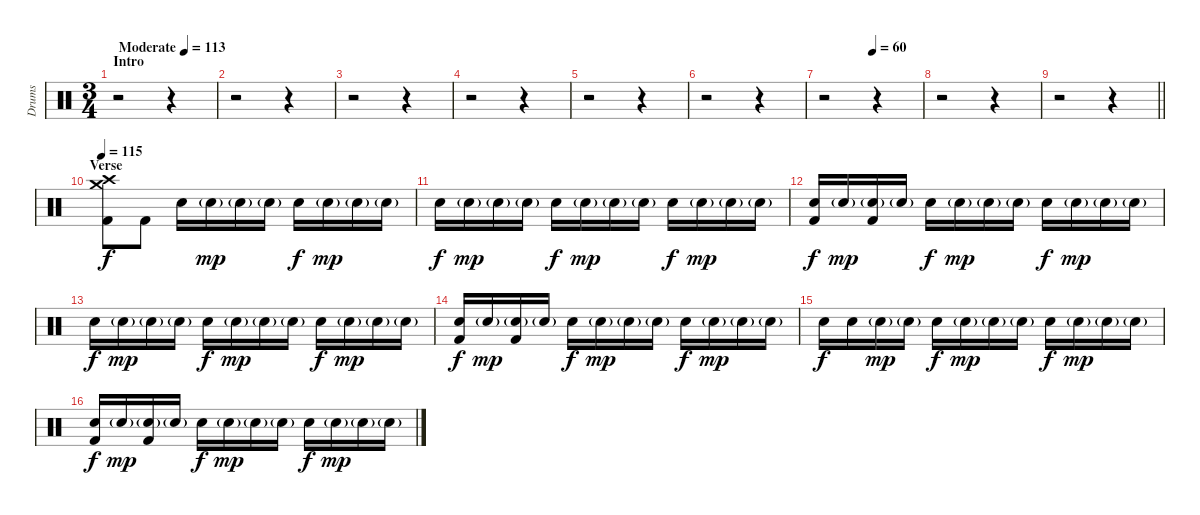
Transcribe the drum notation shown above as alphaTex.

\track ("Drums " "Drums ") {instrument percussion}
\staff {score}
\articulation defaults
\ts (3 4)
\section ("" "Intro")
\tempo (113 "Moderate")
\clef neutral
\ks c
r.2{dy f} r.4 |
r.2 r.4 |
r.2 r.4 |
r.2 r.4 |
r.2 r.4 |
r.2 r.4 |
\tempo (60 0.5)
r.2 r.4 |
r.2 r.4 |
\barLineRight lightlight
r.2 r.4 |
\section ("" "Verse ")
\tempo 115
("Crash medium (hit)" "Crash high (hit)" "Kick (hit) 2").8 "Kick (hit) 2".8 "Electric Snare (hit)".16 "Electric Snare (hit)"{g}.16{dy mp} "Electric Snare (hit)"{g}.16 "Electric Snare (hit)"{g}.16 "Electric Snare (hit)".16{dy f} "Electric Snare (hit)"{g}.16{dy mp} "Electric Snare (hit)"{g}.16 "Electric Snare (hit)"{g}.16 |
"Electric Snare (hit)".16{dy f} "Electric Snare (hit)"{g}.16{dy mp} "Electric Snare (hit)"{g}.16 "Electric Snare (hit)"{g}.16 "Electric Snare (hit)".16{dy f} "Electric Snare (hit)"{g}.16{dy mp} "Electric Snare (hit)"{g}.16 "Electric Snare (hit)"{g}.16 "Electric Snare (hit)".16{dy f} "Electric Snare (hit)"{g}.16{dy mp} "Electric Snare (hit)"{g}.16 "Electric Snare (hit)"{g}.16 |
("Electric Snare (hit)" "Kick (hit) 2").16{dy f} "Electric Snare (hit)"{g}.16{dy mp} ("Electric Snare (hit)"{g} "Kick (hit) 2").16 "Electric Snare (hit)"{g}.16 "Electric Snare (hit)".16{dy f} "Electric Snare (hit)"{g}.16{dy mp} "Electric Snare (hit)"{g}.16 "Electric Snare (hit)"{g}.16 "Electric Snare (hit)".16{dy f} "Electric Snare (hit)"{g}.16{dy mp} "Electric Snare (hit)"{g}.16 "Electric Snare (hit)"{g}.16 |
"Electric Snare (hit)".16{dy f} "Electric Snare (hit)"{g}.16{dy mp} "Electric Snare (hit)"{g}.16 "Electric Snare (hit)"{g}.16 "Electric Snare (hit)".16{dy f} "Electric Snare (hit)"{g}.16{dy mp} "Electric Snare (hit)"{g}.16 "Electric Snare (hit)"{g}.16 "Electric Snare (hit)".16{dy f} "Electric Snare (hit)"{g}.16{dy mp} "Electric Snare (hit)"{g}.16 "Electric Snare (hit)"{g}.16 |
("Electric Snare (hit)" "Kick (hit) 2").16{dy f} "Electric Snare (hit)"{g}.16{dy mp} ("Electric Snare (hit)"{g} "Kick (hit) 2").16 "Electric Snare (hit)"{g}.16 "Electric Snare (hit)".16{dy f} "Electric Snare (hit)"{g}.16{dy mp} "Electric Snare (hit)"{g}.16 "Electric Snare (hit)"{g}.16 "Electric Snare (hit)".16{dy f} "Electric Snare (hit)"{g}.16{dy mp} "Electric Snare (hit)"{g}.16 "Electric Snare (hit)"{g}.16 |
"Electric Snare (hit)".16{dy f} "Electric Snare (hit)".16 "Electric Snare (hit)"{g}.16{dy mp} "Electric Snare (hit)"{g}.16 "Electric Snare (hit)".16{dy f} "Electric Snare (hit)"{g}.16{dy mp} "Electric Snare (hit)"{g}.16 "Electric Snare (hit)"{g}.16 "Electric Snare (hit)".16{dy f} "Electric Snare (hit)"{g}.16{dy mp} "Electric Snare (hit)"{g}.16 "Electric Snare (hit)"{g}.16 |
("Electric Snare (hit)" "Kick (hit) 2").16{dy f} "Electric Snare (hit)"{g}.16{dy mp} ("Electric Snare (hit)"{g} "Kick (hit) 2").16 "Electric Snare (hit)"{g}.16 "Electric Snare (hit)".16{dy f} "Electric Snare (hit)"{g}.16{dy mp} "Electric Snare (hit)"{g}.16 "Electric Snare (hit)"{g}.16 "Electric Snare (hit)".16{dy f} "Electric Snare (hit)"{g}.16{dy mp} "Electric Snare (hit)"{g}.16 "Electric Snare (hit)"{g}.16
